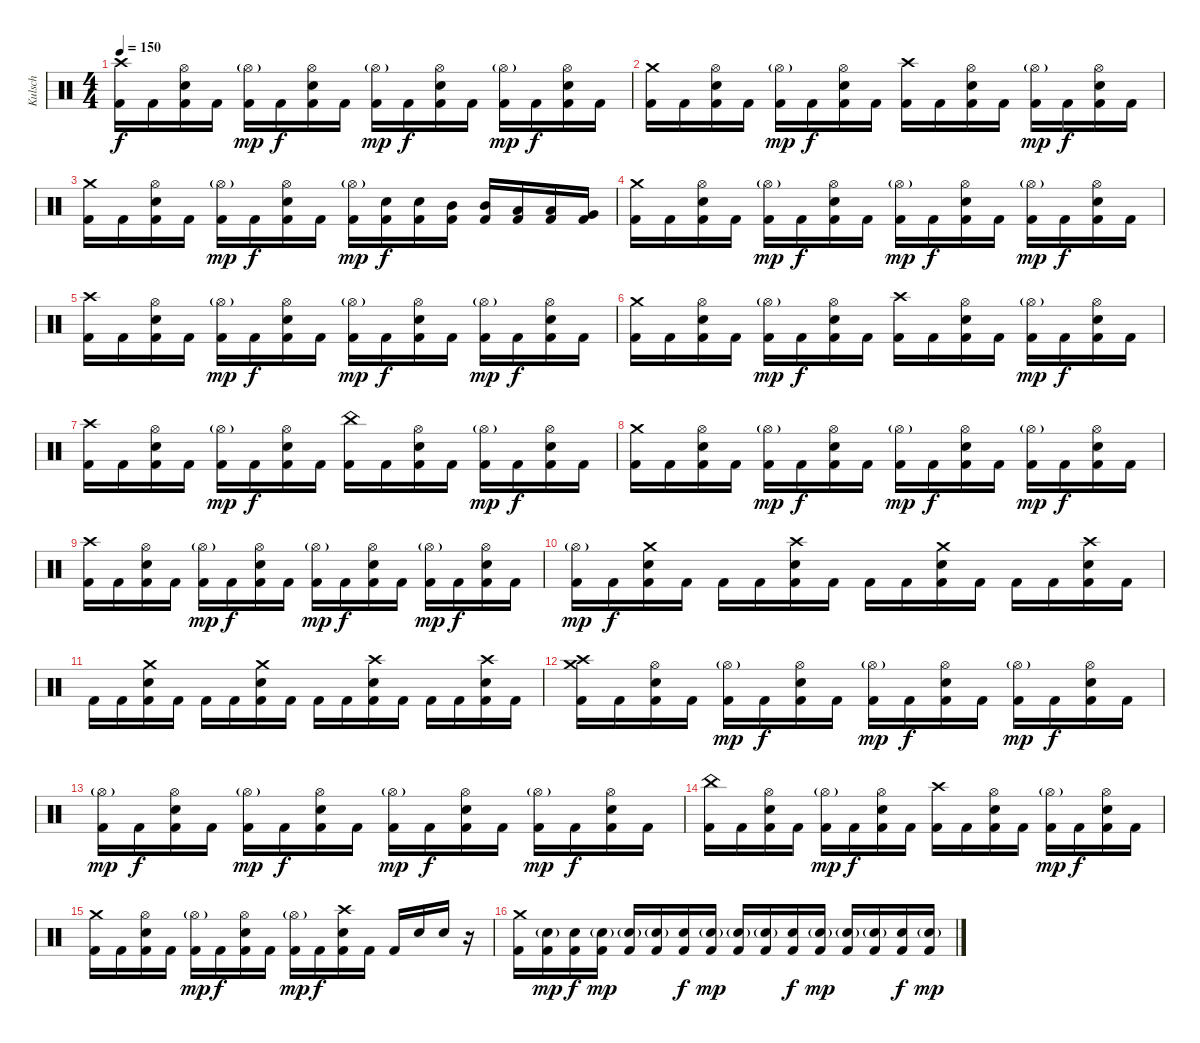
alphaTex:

\track ("Kulsch" "Kulsch") {instrument percussion}
\staff {score}
\articulation defaults
\ts (4 4)
\tempo 150
\clef neutral
\ks c
("Crash high (hit)" "Kick (hit) 2").16{dy f} "Kick (hit) 2".16 ("Hi-Hat (open)" "Snare (hit) 2" "Kick (hit) 2").16 "Kick (hit) 2".16 ("Hi-Hat (open)"{g} "Kick (hit) 2").16{dy mp} "Kick (hit) 2".16{dy f} ("Hi-Hat (open)" "Snare (hit) 2" "Kick (hit) 2").16 "Kick (hit) 2".16 ("Hi-Hat (open)"{g} "Kick (hit) 2").16{dy mp} "Kick (hit) 2".16{dy f} ("Hi-Hat (open)" "Snare (hit) 2" "Kick (hit) 2").16 "Kick (hit) 2".16 ("Hi-Hat (open)"{g} "Kick (hit) 2").16{dy mp} "Kick (hit) 2".16{dy f} ("Hi-Hat (open)" "Snare (hit) 2" "Kick (hit) 2").16 "Kick (hit) 2".16 |
("Crash medium (hit)" "Kick (hit) 2").16 "Kick (hit) 2".16 ("Hi-Hat (open)" "Snare (hit) 2" "Kick (hit) 2").16 "Kick (hit) 2".16 ("Hi-Hat (open)"{g} "Kick (hit) 2").16{dy mp} "Kick (hit) 2".16{dy f} ("Hi-Hat (open)" "Snare (hit) 2" "Kick (hit) 2").16 "Kick (hit) 2".16 ("Crash high (hit)" "Kick (hit) 2").16 "Kick (hit) 2".16 ("Hi-Hat (open)" "Snare (hit) 2" "Kick (hit) 2").16 "Kick (hit) 2".16 ("Hi-Hat (open)"{g} "Kick (hit) 2").16{dy mp} "Kick (hit) 2".16{dy f} ("Hi-Hat (open)" "Snare (hit) 2" "Kick (hit) 2").16 "Kick (hit) 2".16 |
("Crash medium (hit)" "Kick (hit) 2").16 "Kick (hit) 2".16 ("Hi-Hat (open)" "Snare (hit) 2" "Kick (hit) 2").16 "Kick (hit) 2".16 ("Hi-Hat (open)"{g} "Kick (hit) 2").16{dy mp} "Kick (hit) 2".16{dy f} ("Hi-Hat (open)" "Snare (hit) 2" "Kick (hit) 2").16 "Kick (hit) 2".16 ("Hi-Hat (open)"{g} "Kick (hit) 2").16{dy mp} ("Snare (hit) 2" "Kick (hit) 2").16{dy f} ("Snare (hit) 2" "Kick (hit) 2").16 ("Mid Tom (hit)" "Kick (hit) 2").16 ("Mid Tom (hit)" "Kick (hit) 2").16 ("Low Tom (hit)" "Kick (hit) 2").16 ("Low Tom (hit)" "Kick (hit) 2").16 ("Very Low Tom (hit)" "Kick (hit) 2").16 |
("Crash medium (hit)" "Kick (hit) 2").16 "Kick (hit) 2".16 ("Hi-Hat (open)" "Snare (hit) 2" "Kick (hit) 2").16 "Kick (hit) 2".16 ("Hi-Hat (open)"{g} "Kick (hit) 2").16{dy mp} "Kick (hit) 2".16{dy f} ("Hi-Hat (open)" "Snare (hit) 2" "Kick (hit) 2").16 "Kick (hit) 2".16 ("Hi-Hat (open)"{g} "Kick (hit) 2").16{dy mp} "Kick (hit) 2".16{dy f} ("Hi-Hat (open)" "Snare (hit) 2" "Kick (hit) 2").16 "Kick (hit) 2".16 ("Hi-Hat (open)"{g} "Kick (hit) 2").16{dy mp} "Kick (hit) 2".16{dy f} ("Hi-Hat (open)" "Snare (hit) 2" "Kick (hit) 2").16 "Kick (hit) 2".16 |
("Crash high (hit)" "Kick (hit) 2").16 "Kick (hit) 2".16 ("Hi-Hat (open)" "Snare (hit) 2" "Kick (hit) 2").16 "Kick (hit) 2".16 ("Hi-Hat (open)"{g} "Kick (hit) 2").16{dy mp} "Kick (hit) 2".16{dy f} ("Hi-Hat (open)" "Snare (hit) 2" "Kick (hit) 2").16 "Kick (hit) 2".16 ("Hi-Hat (open)"{g} "Kick (hit) 2").16{dy mp} "Kick (hit) 2".16{dy f} ("Hi-Hat (open)" "Snare (hit) 2" "Kick (hit) 2").16 "Kick (hit) 2".16 ("Hi-Hat (open)"{g} "Kick (hit) 2").16{dy mp} "Kick (hit) 2".16{dy f} ("Hi-Hat (open)" "Snare (hit) 2" "Kick (hit) 2").16 "Kick (hit) 2".16 |
("Crash medium (hit)" "Kick (hit) 2").16 "Kick (hit) 2".16 ("Hi-Hat (open)" "Snare (hit) 2" "Kick (hit) 2").16 "Kick (hit) 2".16 ("Hi-Hat (open)"{g} "Kick (hit) 2").16{dy mp} "Kick (hit) 2".16{dy f} ("Hi-Hat (open)" "Snare (hit) 2" "Kick (hit) 2").16 "Kick (hit) 2".16 ("Crash high (hit)" "Kick (hit) 2").16 "Kick (hit) 2".16 ("Hi-Hat (open)" "Snare (hit) 2" "Kick (hit) 2").16 "Kick (hit) 2".16 ("Hi-Hat (open)"{g} "Kick (hit) 2").16{dy mp} "Kick (hit) 2".16{dy f} ("Hi-Hat (open)" "Snare (hit) 2" "Kick (hit) 2").16 "Kick (hit) 2".16 |
("Crash high (hit)" "Kick (hit) 2").16 "Kick (hit) 2".16 ("Hi-Hat (open)" "Snare (hit) 2" "Kick (hit) 2").16 "Kick (hit) 2".16 ("Hi-Hat (open)"{g} "Kick (hit) 2").16{dy mp} "Kick (hit) 2".16{dy f} ("Hi-Hat (open)" "Snare (hit) 2" "Kick (hit) 2").16 "Kick (hit) 2".16 ("China (hit)" "Kick (hit) 2").16 "Kick (hit) 2".16 ("Hi-Hat (open)" "Snare (hit) 2" "Kick (hit) 2").16 "Kick (hit) 2".16 ("Hi-Hat (open)"{g} "Kick (hit) 2").16{dy mp} "Kick (hit) 2".16{dy f} ("Hi-Hat (open)" "Snare (hit) 2" "Kick (hit) 2").16 "Kick (hit) 2".16 |
("Crash medium (hit)" "Kick (hit) 2").16 "Kick (hit) 2".16 ("Hi-Hat (open)" "Snare (hit) 2" "Kick (hit) 2").16 "Kick (hit) 2".16 ("Hi-Hat (open)"{g} "Kick (hit) 2").16{dy mp} "Kick (hit) 2".16{dy f} ("Hi-Hat (open)" "Snare (hit) 2" "Kick (hit) 2").16 "Kick (hit) 2".16 ("Hi-Hat (open)"{g} "Kick (hit) 2").16{dy mp} "Kick (hit) 2".16{dy f} ("Hi-Hat (open)" "Snare (hit) 2" "Kick (hit) 2").16 "Kick (hit) 2".16 ("Hi-Hat (open)"{g} "Kick (hit) 2").16{dy mp} "Kick (hit) 2".16{dy f} ("Hi-Hat (open)" "Snare (hit) 2" "Kick (hit) 2").16 "Kick (hit) 2".16 |
("Crash high (hit)" "Kick (hit) 2").16 "Kick (hit) 2".16 ("Hi-Hat (open)" "Snare (hit) 2" "Kick (hit) 2").16 "Kick (hit) 2".16 ("Hi-Hat (open)"{g} "Kick (hit) 2").16{dy mp} "Kick (hit) 2".16{dy f} ("Hi-Hat (open)" "Snare (hit) 2" "Kick (hit) 2").16 "Kick (hit) 2".16 ("Hi-Hat (open)"{g} "Kick (hit) 2").16{dy mp} "Kick (hit) 2".16{dy f} ("Hi-Hat (open)" "Snare (hit) 2" "Kick (hit) 2").16 "Kick (hit) 2".16 ("Hi-Hat (open)"{g} "Kick (hit) 2").16{dy mp} "Kick (hit) 2".16{dy f} ("Hi-Hat (open)" "Snare (hit) 2" "Kick (hit) 2").16 "Kick (hit) 2".16 |
("Hi-Hat (open)"{g} "Kick (hit) 2").16{dy mp} "Kick (hit) 2".16{dy f} ("Crash medium (hit)" "Snare (hit) 2" "Kick (hit) 2").16 "Kick (hit) 2".16 "Kick (hit) 2".16 "Kick (hit) 2".16 ("Crash high (hit)" "Snare (hit) 2" "Kick (hit) 2").16 "Kick (hit) 2".16 "Kick (hit) 2".16 "Kick (hit) 2".16 ("Crash medium (hit)" "Snare (hit) 2" "Kick (hit) 2").16 "Kick (hit) 2".16 "Kick (hit) 2".16 "Kick (hit) 2".16 ("Crash high (hit)" "Snare (hit) 2" "Kick (hit) 2").16 "Kick (hit) 2".16 |
"Kick (hit) 2".16 "Kick (hit) 2".16 ("Crash medium (hit)" "Snare (hit) 2" "Kick (hit) 2").16 "Kick (hit) 2".16 "Kick (hit) 2".16 "Kick (hit) 2".16 ("Crash medium (hit)" "Snare (hit) 2" "Kick (hit) 2").16 "Kick (hit) 2".16 "Kick (hit) 2".16 "Kick (hit) 2".16 ("Crash high (hit)" "Snare (hit) 2" "Kick (hit) 2").16 "Kick (hit) 2".16 "Kick (hit) 2".16 "Kick (hit) 2".16 ("Crash high (hit)" "Snare (hit) 2" "Kick (hit) 2").16 "Kick (hit) 2".16 |
("Crash medium (hit)" "Crash high (hit)" "Kick (hit) 2").16 "Kick (hit) 2".16 ("Hi-Hat (open)" "Snare (hit) 2" "Kick (hit) 2").16 "Kick (hit) 2".16 ("Hi-Hat (open)"{g} "Kick (hit) 2").16{dy mp} "Kick (hit) 2".16{dy f} ("Hi-Hat (open)" "Snare (hit) 2" "Kick (hit) 2").16 "Kick (hit) 2".16 ("Hi-Hat (open)"{g} "Kick (hit) 2").16{dy mp} "Kick (hit) 2".16{dy f} ("Hi-Hat (open)" "Snare (hit) 2" "Kick (hit) 2").16 "Kick (hit) 2".16 ("Hi-Hat (open)"{g} "Kick (hit) 2").16{dy mp} "Kick (hit) 2".16{dy f} ("Hi-Hat (open)" "Snare (hit) 2" "Kick (hit) 2").16 "Kick (hit) 2".16 |
("Hi-Hat (open)"{g} "Kick (hit) 2").16{dy mp} "Kick (hit) 2".16{dy f} ("Hi-Hat (open)" "Snare (hit) 2" "Kick (hit) 2").16 "Kick (hit) 2".16 ("Hi-Hat (open)"{g} "Kick (hit) 2").16{dy mp} "Kick (hit) 2".16{dy f} ("Hi-Hat (open)" "Snare (hit) 2" "Kick (hit) 2").16 "Kick (hit) 2".16 ("Hi-Hat (open)"{g} "Kick (hit) 2").16{dy mp} "Kick (hit) 2".16{dy f} ("Hi-Hat (open)" "Snare (hit) 2" "Kick (hit) 2").16 "Kick (hit) 2".16 ("Hi-Hat (open)"{g} "Kick (hit) 2").16{dy mp} "Kick (hit) 2".16{dy f} ("Hi-Hat (open)" "Snare (hit) 2" "Kick (hit) 2").16 "Kick (hit) 2".16 |
("China (hit)" "Kick (hit) 2").16 "Kick (hit) 2".16 ("Hi-Hat (open)" "Snare (hit) 2" "Kick (hit) 2").16 "Kick (hit) 2".16 ("Hi-Hat (open)"{g} "Kick (hit) 2").16{dy mp} "Kick (hit) 2".16{dy f} ("Hi-Hat (open)" "Snare (hit) 2" "Kick (hit) 2").16 "Kick (hit) 2".16 ("Crash high (hit)" "Kick (hit) 2").16 "Kick (hit) 2".16 ("Hi-Hat (open)" "Snare (hit) 2" "Kick (hit) 2").16 "Kick (hit) 2".16 ("Hi-Hat (open)"{g} "Kick (hit) 2").16{dy mp} "Kick (hit) 2".16{dy f} ("Hi-Hat (open)" "Snare (hit) 2" "Kick (hit) 2").16 "Kick (hit) 2".16 |
("Crash medium (hit)" "Kick (hit) 2").16 "Kick (hit) 2".16 ("Hi-Hat (open)" "Snare (hit) 2" "Kick (hit) 2").16 "Kick (hit) 2".16 ("Hi-Hat (open)"{g} "Kick (hit) 2").16{dy mp} "Kick (hit) 2".16{dy f} ("Hi-Hat (open)" "Snare (hit) 2" "Kick (hit) 2").16 "Kick (hit) 2".16 ("Hi-Hat (open)"{g} "Kick (hit) 2").16{dy mp} "Kick (hit) 2".16{dy f} ("Crash high (hit)" "Snare (hit) 2" "Kick (hit) 2").16 "Kick (hit) 2".16 "Kick (hit) 2".16 "Snare (hit) 2".16 "Snare (hit) 2".16 r.16 |
("Crash medium (hit)" "Kick (hit) 2").16 ("Snare (hit) 2"{g} "Kick (hit) 2").16{dy mp} ("Snare (hit) 2" "Kick (hit) 2").16{dy f} ("Snare (hit) 2"{g} "Kick (hit) 2").16{dy mp} ("Snare (hit) 2"{g} "Kick (hit) 2").16 ("Snare (hit) 2"{g} "Kick (hit) 2").16 ("Snare (hit) 2" "Kick (hit) 2").16{dy f} ("Snare (hit) 2"{g} "Kick (hit) 2").16{dy mp} ("Snare (hit) 2"{g} "Kick (hit) 2").16 ("Snare (hit) 2"{g} "Kick (hit) 2").16 ("Snare (hit) 2" "Kick (hit) 2").16{dy f} ("Snare (hit) 2"{g} "Kick (hit) 2").16{dy mp} ("Snare (hit) 2"{g} "Kick (hit) 2").16 ("Snare (hit) 2"{g} "Kick (hit) 2").16 ("Snare (hit) 2" "Kick (hit) 2").16{dy f} ("Snare (hit) 2"{g} "Kick (hit) 2").16{dy mp}
